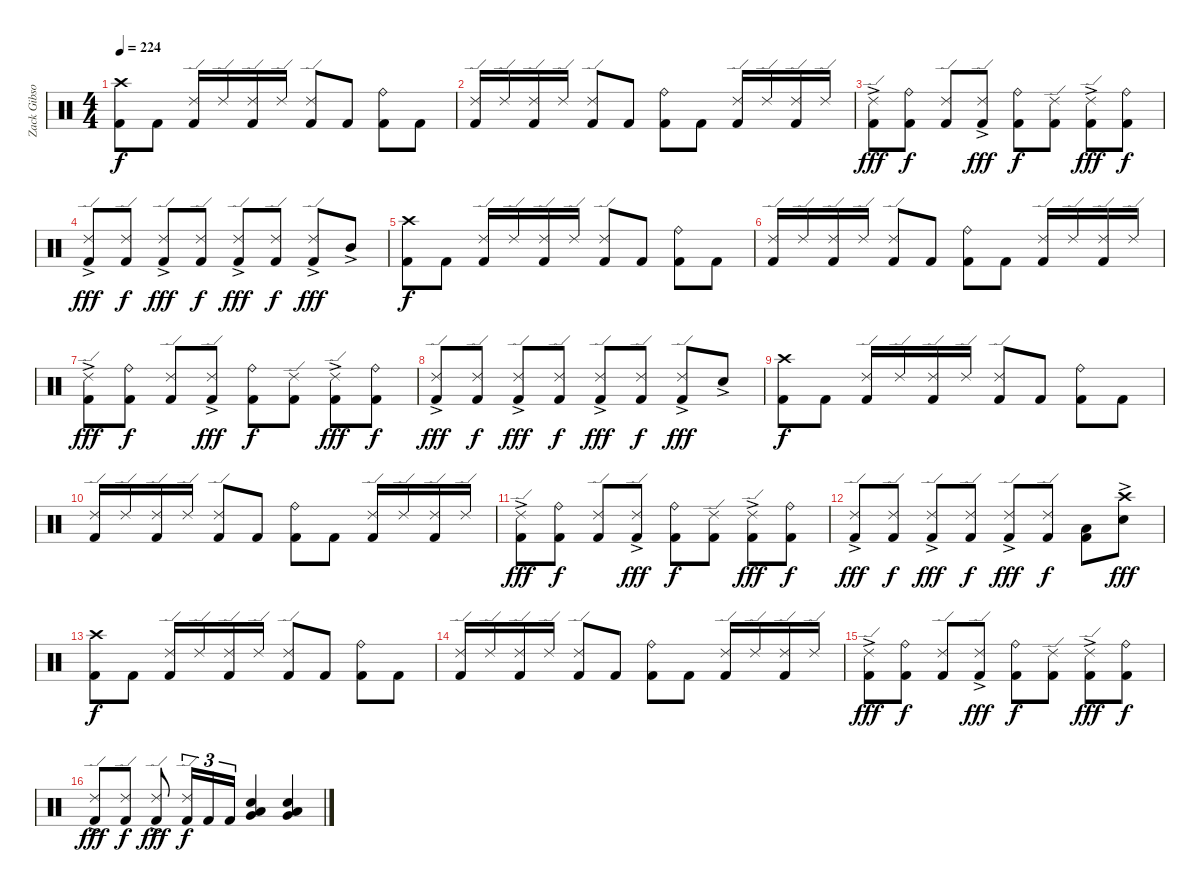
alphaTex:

\track ("Zack Gibson" "Zack Gibso") {instrument percussion}
\staff {score}
\articulation defaults
\ts (4 4)
\tempo 224
\clef neutral
\ks c
("Crash high (hit)" "Kick (hit) 2").8{dy f} "Kick (hit) 2".8 ("Ride (edge) 2" "Kick (hit) 2").16 "Ride (edge) 2".16 ("Ride (edge) 2" "Kick (hit) 2").16 "Ride (edge) 2".16 ("Ride (edge) 2" "Kick (hit) 2").8 "Kick (hit) 2".8 ("Ride (bell)" "Kick (hit) 2").8 "Kick (hit) 2".8 |
("Ride (edge) 2" "Kick (hit) 2").16 "Ride (edge) 2".16 ("Ride (edge) 2" "Kick (hit) 2").16 "Ride (edge) 2".16 ("Ride (edge) 2" "Kick (hit) 2").8 "Kick (hit) 2".8 ("Ride (bell)" "Kick (hit) 2").8 "Kick (hit) 2".8 ("Ride (edge) 2" "Kick (hit) 2").16 "Ride (edge) 2".16 ("Ride (edge) 2" "Kick (hit) 2").16 "Ride (edge) 2".16 |
("Ride (edge) 2"{ac} "Kick (hit) 2").8{dy fff} ("Ride (bell)" "Kick (hit) 2").8{dy f} ("Ride (edge) 2" "Kick (hit) 2").8 ("Ride (edge) 2"{ac} "Kick (hit) 2").8{dy fff} ("Ride (bell)" "Kick (hit) 2").8{dy f} ("Ride (edge) 2" "Kick (hit) 2").8 ("Ride (edge) 2"{ac} "Kick (hit) 2").8{dy fff} ("Ride (bell)" "Kick (hit) 2").8{dy f} |
("Ride (edge) 2"{ac} "Kick (hit) 2").8{dy fff} ("Ride (edge) 2" "Kick (hit) 2").8{dy f} ("Ride (edge) 2"{ac} "Kick (hit) 2").8{dy fff} ("Ride (edge) 2" "Kick (hit) 2").8{dy f} ("Ride (edge) 2"{ac} "Kick (hit) 2").8{dy fff} ("Ride (edge) 2" "Kick (hit) 2").8{dy f} ("Ride (edge) 2"{ac} "Kick (hit) 2").8{dy fff} "Mid Tom (hit)"{ac}.8 |
("Crash high (hit)" "Kick (hit) 2").8{dy f} "Kick (hit) 2".8 ("Ride (edge) 2" "Kick (hit) 2").16 "Ride (edge) 2".16 ("Ride (edge) 2" "Kick (hit) 2").16 "Ride (edge) 2".16 ("Ride (edge) 2" "Kick (hit) 2").8 "Kick (hit) 2".8 ("Ride (bell)" "Kick (hit) 2").8 "Kick (hit) 2".8 |
("Ride (edge) 2" "Kick (hit) 2").16 "Ride (edge) 2".16 ("Ride (edge) 2" "Kick (hit) 2").16 "Ride (edge) 2".16 ("Ride (edge) 2" "Kick (hit) 2").8 "Kick (hit) 2".8 ("Ride (bell)" "Kick (hit) 2").8 "Kick (hit) 2".8 ("Ride (edge) 2" "Kick (hit) 2").16 "Ride (edge) 2".16 ("Ride (edge) 2" "Kick (hit) 2").16 "Ride (edge) 2".16 |
("Ride (edge) 2"{ac} "Kick (hit) 2").8{dy fff} ("Ride (bell)" "Kick (hit) 2").8{dy f} ("Ride (edge) 2" "Kick (hit) 2").8 ("Ride (edge) 2"{ac} "Kick (hit) 2").8{dy fff} ("Ride (bell)" "Kick (hit) 2").8{dy f} ("Ride (edge) 2" "Kick (hit) 2").8 ("Ride (edge) 2"{ac} "Kick (hit) 2").8{dy fff} ("Ride (bell)" "Kick (hit) 2").8{dy f} |
("Ride (edge) 2"{ac} "Kick (hit) 2").8{dy fff} ("Ride (edge) 2" "Kick (hit) 2").8{dy f} ("Ride (edge) 2"{ac} "Kick (hit) 2").8{dy fff} ("Ride (edge) 2" "Kick (hit) 2").8{dy f} ("Ride (edge) 2"{ac} "Kick (hit) 2").8{dy fff} ("Ride (edge) 2" "Kick (hit) 2").8{dy f} ("Ride (edge) 2"{ac} "Kick (hit) 2").8{dy fff} "Snare (hit) 2"{ac}.8 |
("Crash high (hit)" "Kick (hit) 2").8{dy f} "Kick (hit) 2".8 ("Ride (edge) 2" "Kick (hit) 2").16 "Ride (edge) 2".16 ("Ride (edge) 2" "Kick (hit) 2").16 "Ride (edge) 2".16 ("Ride (edge) 2" "Kick (hit) 2").8 "Kick (hit) 2".8 ("Ride (bell)" "Kick (hit) 2").8 "Kick (hit) 2".8 |
("Ride (edge) 2" "Kick (hit) 2").16 "Ride (edge) 2".16 ("Ride (edge) 2" "Kick (hit) 2").16 "Ride (edge) 2".16 ("Ride (edge) 2" "Kick (hit) 2").8 "Kick (hit) 2".8 ("Ride (bell)" "Kick (hit) 2").8 "Kick (hit) 2".8 ("Ride (edge) 2" "Kick (hit) 2").16 "Ride (edge) 2".16 ("Ride (edge) 2" "Kick (hit) 2").16 "Ride (edge) 2".16 |
("Ride (edge) 2"{ac} "Kick (hit) 2").8{dy fff} ("Ride (bell)" "Kick (hit) 2").8{dy f} ("Ride (edge) 2" "Kick (hit) 2").8 ("Ride (edge) 2"{ac} "Kick (hit) 2").8{dy fff} ("Ride (bell)" "Kick (hit) 2").8{dy f} ("Ride (edge) 2" "Kick (hit) 2").8 ("Ride (edge) 2"{ac} "Kick (hit) 2").8{dy fff} ("Ride (bell)" "Kick (hit) 2").8{dy f} |
("Ride (edge) 2"{ac} "Kick (hit) 2").8{dy fff} ("Ride (edge) 2" "Kick (hit) 2").8{dy f} ("Ride (edge) 2"{ac} "Kick (hit) 2").8{dy fff} ("Ride (edge) 2" "Kick (hit) 2").8{dy f} ("Ride (edge) 2"{ac} "Kick (hit) 2").8{dy fff} ("Ride (edge) 2" "Kick (hit) 2").8{dy f} ("Low Tom (hit)" "Kick (hit) 2").8 ("Crash high (hit)"{ac} "Snare (hit) 2").8{dy fff} |
("Crash high (hit)" "Kick (hit) 2").8{dy f} "Kick (hit) 2".8 ("Ride (edge) 2" "Kick (hit) 2").16 "Ride (edge) 2".16 ("Ride (edge) 2" "Kick (hit) 2").16 "Ride (edge) 2".16 ("Ride (edge) 2" "Kick (hit) 2").8 "Kick (hit) 2".8 ("Ride (bell)" "Kick (hit) 2").8 "Kick (hit) 2".8 |
("Ride (edge) 2" "Kick (hit) 2").16 "Ride (edge) 2".16 ("Ride (edge) 2" "Kick (hit) 2").16 "Ride (edge) 2".16 ("Ride (edge) 2" "Kick (hit) 2").8 "Kick (hit) 2".8 ("Ride (bell)" "Kick (hit) 2").8 "Kick (hit) 2".8 ("Ride (edge) 2" "Kick (hit) 2").16 "Ride (edge) 2".16 ("Ride (edge) 2" "Kick (hit) 2").16 "Ride (edge) 2".16 |
("Ride (edge) 2"{ac} "Kick (hit) 2").8{dy fff} ("Ride (bell)" "Kick (hit) 2").8{dy f} ("Ride (edge) 2" "Kick (hit) 2").8 ("Ride (edge) 2"{ac} "Kick (hit) 2").8{dy fff} ("Ride (bell)" "Kick (hit) 2").8{dy f} ("Ride (edge) 2" "Kick (hit) 2").8 ("Ride (edge) 2"{ac} "Kick (hit) 2").8{dy fff} ("Ride (bell)" "Kick (hit) 2").8{dy f} |
("Ride (edge) 2"{ac} "Kick (hit) 2").8{dy fff} ("Ride (edge) 2" "Kick (hit) 2").8{dy f} ("Ride (edge) 2"{ac} "Kick (hit) 2").8{dy fff} ("Ride (edge) 2" "Kick (hit) 2").16{tu (3 2) dy f} "Kick (hit) 2".16{tu (3 2)} "Kick (hit) 2".16{tu (3 2)} ("Low Floor Tom (hit)" "Very Low Tom (hit)" "Snare (hit) 2").4 ("Very Low Tom (hit)" "Low Floor Tom (hit)" "Snare (hit) 2").4
